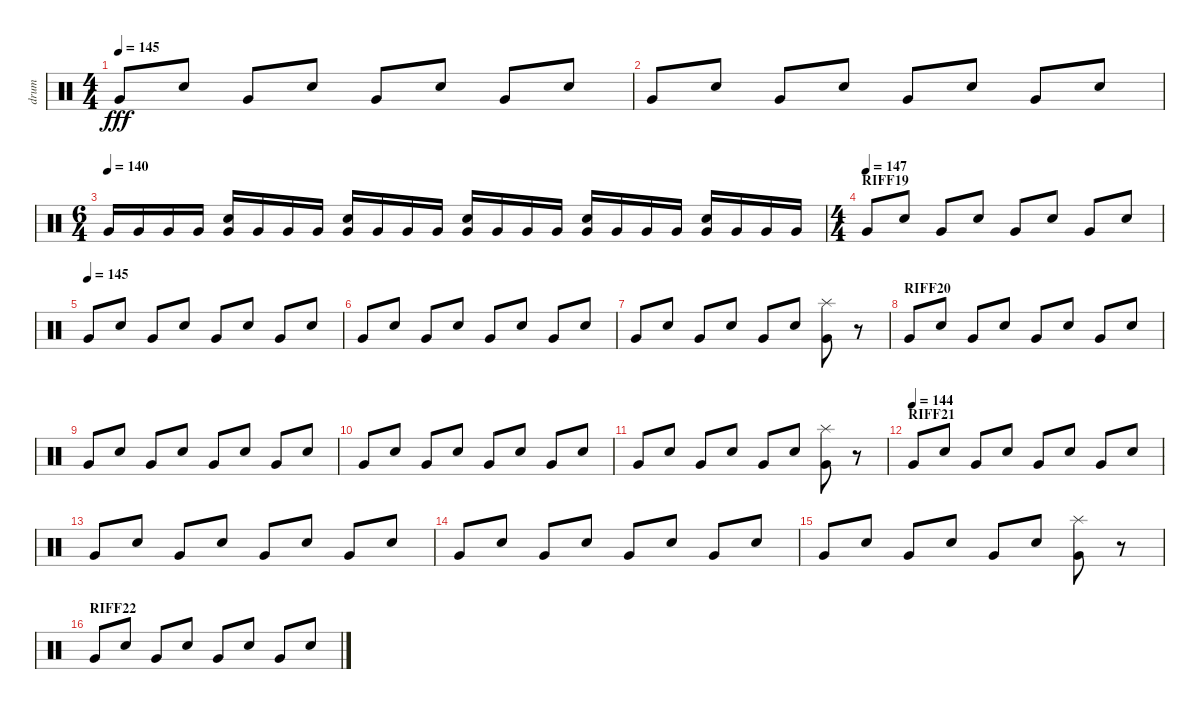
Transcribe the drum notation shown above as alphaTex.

\track ("drum" "drum") {instrument percussion}
\staff {score}
\articulation defaults
\ts (4 4)
\tempo 145
\clef neutral
\ks c "Very Low Tom (hit)".8{dy fff} "Electric Snare (hit)".8 "Very Low Tom (hit)".8 "Electric Snare (hit)".8 "Very Low Tom (hit)".8 "Electric Snare (hit)".8 "Very Low Tom (hit)".8 "Electric Snare (hit)".8
|
"Very Low Tom (hit)".8 "Electric Snare (hit)".8 "Very Low Tom (hit)".8 "Electric Snare (hit)".8 "Very Low Tom (hit)".8 "Electric Snare (hit)".8 "Very Low Tom (hit)".8 "Electric Snare (hit)".8 |
\ts (6 4)
\tempo (140)
"Very Low Tom (hit)".16 "Very Low Tom (hit)".16 "Very Low Tom (hit)".16 "Very Low Tom (hit)".16 ("Very Low Tom (hit)" "Electric Snare (hit)").16 "Very Low Tom (hit)".16 "Very Low Tom (hit)".16 "Very Low Tom (hit)".16 ("Very Low Tom (hit)" "Electric Snare (hit)").16 "Very Low Tom (hit)".16 "Very Low Tom (hit)".16 "Very Low Tom (hit)".16 ("Very Low Tom (hit)" "Electric Snare (hit)").16 "Very Low Tom (hit)".16 "Very Low Tom (hit)".16 "Very Low Tom (hit)".16 ("Very Low Tom (hit)" "Electric Snare (hit)").16 "Very Low Tom (hit)".16 "Very Low Tom (hit)".16 "Very Low Tom (hit)".16 ("Very Low Tom (hit)" "Electric Snare (hit)").16 "Very Low Tom (hit)".16 "Very Low Tom (hit)".16 "Very Low Tom (hit)".16 |
\ts (4 4)
\section ("" "RIFF19")
\tempo (147)
"Very Low Tom (hit)".8 "Electric Snare (hit)".8 "Very Low Tom (hit)".8 "Electric Snare (hit)".8 "Very Low Tom (hit)".8 "Electric Snare (hit)".8 "Very Low Tom (hit)".8 "Electric Snare (hit)".8 |
\tempo (145)
"Very Low Tom (hit)".8 "Electric Snare (hit)".8 "Very Low Tom (hit)".8 "Electric Snare (hit)".8 "Very Low Tom (hit)".8 "Electric Snare (hit)".8 "Very Low Tom (hit)".8 "Electric Snare (hit)".8 |
"Very Low Tom (hit)".8 "Electric Snare (hit)".8 "Very Low Tom (hit)".8 "Electric Snare (hit)".8 "Very Low Tom (hit)".8 "Electric Snare (hit)".8 "Very Low Tom (hit)".8 "Electric Snare (hit)".8 |
"Very Low Tom (hit)".8 "Electric Snare (hit)".8 "Very Low Tom (hit)".8 "Electric Snare (hit)".8 "Very Low Tom (hit)".8 "Electric Snare (hit)".8 ("Very Low Tom (hit)" "Splash (hit)").8 r.8 |
\section ("" "RIFF20")
"Very Low Tom (hit)".8 "Electric Snare (hit)".8 "Very Low Tom (hit)".8 "Electric Snare (hit)".8 "Very Low Tom (hit)".8 "Electric Snare (hit)".8 "Very Low Tom (hit)".8 "Electric Snare (hit)".8 |
"Very Low Tom (hit)".8 "Electric Snare (hit)".8 "Very Low Tom (hit)".8 "Electric Snare (hit)".8 "Very Low Tom (hit)".8 "Electric Snare (hit)".8 "Very Low Tom (hit)".8 "Electric Snare (hit)".8 |
"Very Low Tom (hit)".8 "Electric Snare (hit)".8 "Very Low Tom (hit)".8 "Electric Snare (hit)".8 "Very Low Tom (hit)".8 "Electric Snare (hit)".8 "Very Low Tom (hit)".8 "Electric Snare (hit)".8 |
"Very Low Tom (hit)".8 "Electric Snare (hit)".8 "Very Low Tom (hit)".8 "Electric Snare (hit)".8 "Very Low Tom (hit)".8 "Electric Snare (hit)".8 ("Very Low Tom (hit)" "Splash (hit)").8 r.8 |
\section ("" "RIFF21")
\tempo (144)
"Very Low Tom (hit)".8 "Electric Snare (hit)".8 "Very Low Tom (hit)".8 "Electric Snare (hit)".8 "Very Low Tom (hit)".8 "Electric Snare (hit)".8 "Very Low Tom (hit)".8 "Electric Snare (hit)".8 |
"Very Low Tom (hit)".8 "Electric Snare (hit)".8 "Very Low Tom (hit)".8 "Electric Snare (hit)".8 "Very Low Tom (hit)".8 "Electric Snare (hit)".8 "Very Low Tom (hit)".8 "Electric Snare (hit)".8 |
"Very Low Tom (hit)".8 "Electric Snare (hit)".8 "Very Low Tom (hit)".8 "Electric Snare (hit)".8 "Very Low Tom (hit)".8 "Electric Snare (hit)".8 "Very Low Tom (hit)".8 "Electric Snare (hit)".8 |
"Very Low Tom (hit)".8 "Electric Snare (hit)".8 "Very Low Tom (hit)".8 "Electric Snare (hit)".8 "Very Low Tom (hit)".8 "Electric Snare (hit)".8 ("Very Low Tom (hit)" "Splash (hit)").8 r.8 |
\section ("" "RIFF22")
"Very Low Tom (hit)".8 "Electric Snare (hit)".8 "Very Low Tom (hit)".8 "Electric Snare (hit)".8 "Very Low Tom (hit)".8 "Electric Snare (hit)".8 "Very Low Tom (hit)".8 "Electric Snare (hit)".8
